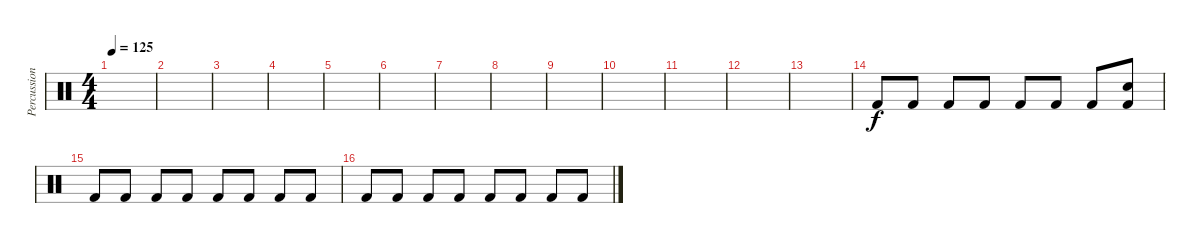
\track ("Percussions" "Percussion") {instrument percussion}
\staff {score}
\articulation defaults
\ts (4 4)
\tempo 125
\clef neutral
\ks c
|
|
|
|
|
|
|
|
|
|
|
|
|
"Kick (hit) 2".8 "Kick (hit) 2".8 "Kick (hit) 2".8 "Kick (hit) 2".8 "Kick (hit) 2".8 "Kick (hit) 2".8 "Kick (hit) 2".8 ("Snare (hit) 2" "Kick (hit) 2").8 |
"Kick (hit) 2".8 "Kick (hit) 2".8 "Kick (hit) 2".8 "Kick (hit) 2".8 "Kick (hit) 2".8 "Kick (hit) 2".8 "Kick (hit) 2".8 "Kick (hit) 2".8 |
"Kick (hit) 2".8 "Kick (hit) 2".8 "Kick (hit) 2".8 "Kick (hit) 2".8 "Kick (hit) 2".8 "Kick (hit) 2".8 "Kick (hit) 2".8 "Kick (hit) 2".8
